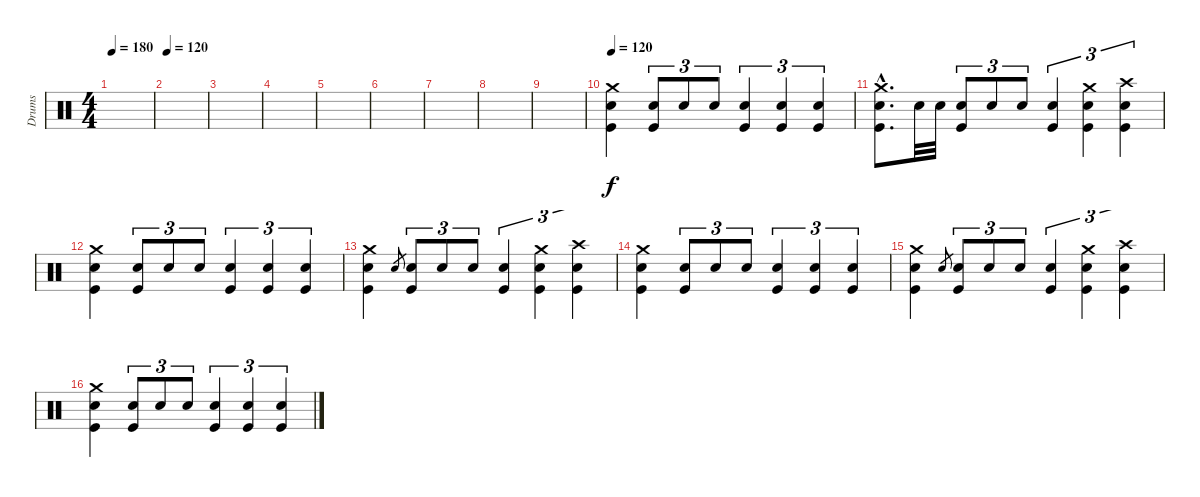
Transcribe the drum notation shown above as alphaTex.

\track ("Drums" "Drums") {instrument percussion}
\staff {score}
\articulation defaults
\ts (4 4)
\tempo 180
\tempo 120
\tempo 180
\clef neutral
\ks c
|
\tempo 120
|
|
|
|
|
|
|
|
\tempo 120
("Crash medium (hit)" "Snare (hit) 2" "Kick (hit)").4 ("Snare (hit) 2" "Kick (hit)").8{tu (3 2)} "Snare (hit) 2".8{tu (3 2)} "Snare (hit) 2".8{tu (3 2)} ("Snare (hit) 2" "Kick (hit)").4{tu (3 2)} ("Snare (hit) 2" "Kick (hit)").4{tu (3 2)} ("Snare (hit) 2" "Kick (hit)").4{tu (3 2)} |
("Crash medium (hit)"{hac} "Snare (hit) 2"{hac} "Kick (hit)"{hac}).8{d} "Snare (hit) 2".32 "Snare (hit) 2".32 ("Snare (hit) 2" "Kick (hit)").8{tu (3 2)} "Snare (hit) 2".8{tu (3 2)} "Snare (hit) 2".8{tu (3 2)} ("Snare (hit) 2" "Kick (hit)").4{tu (3 2)} ("Crash medium (hit)" "Snare (hit) 2" "Kick (hit)").4{tu (3 2)} ("Crash high (hit)" "Snare (hit) 2" "Kick (hit)").4{tu (3 2)} |
("Crash medium (hit)" "Snare (hit) 2" "Kick (hit)").4 ("Snare (hit) 2" "Kick (hit)").8{tu (3 2)} "Snare (hit) 2".8{tu (3 2)} "Snare (hit) 2".8{tu (3 2)} ("Snare (hit) 2" "Kick (hit)").4{tu (3 2)} ("Snare (hit) 2" "Kick (hit)").4{tu (3 2)} ("Snare (hit) 2" "Kick (hit)").4{tu (3 2)} |
("Crash medium (hit)" "Snare (hit) 2" "Kick (hit)").4 "Snare (hit) 2".8{gr} ("Snare (hit) 2" "Kick (hit)").8{tu (3 2)} "Snare (hit) 2".8{tu (3 2)} "Snare (hit) 2".8{tu (3 2)} ("Snare (hit) 2" "Kick (hit)").4{tu (3 2)} ("Crash medium (hit)" "Snare (hit) 2" "Kick (hit)").4{tu (3 2)} ("Crash high (hit)" "Snare (hit) 2" "Kick (hit)").4{tu (3 2)} |
("Crash medium (hit)" "Snare (hit) 2" "Kick (hit)").4 ("Snare (hit) 2" "Kick (hit)").8{tu (3 2)} "Snare (hit) 2".8{tu (3 2)} "Snare (hit) 2".8{tu (3 2)} ("Snare (hit) 2" "Kick (hit)").4{tu (3 2)} ("Snare (hit) 2" "Kick (hit)").4{tu (3 2)} ("Snare (hit) 2" "Kick (hit)").4{tu (3 2)} |
("Crash medium (hit)" "Snare (hit) 2" "Kick (hit)").4 "Snare (hit) 2".8{gr} ("Snare (hit) 2" "Kick (hit)").8{tu (3 2)} "Snare (hit) 2".8{tu (3 2)} "Snare (hit) 2".8{tu (3 2)} ("Snare (hit) 2" "Kick (hit)").4{tu (3 2)} ("Crash medium (hit)" "Snare (hit) 2" "Kick (hit)").4{tu (3 2)} ("Crash high (hit)" "Snare (hit) 2" "Kick (hit)").4{tu (3 2)} |
("Crash medium (hit)" "Snare (hit) 2" "Kick (hit)").4 ("Snare (hit) 2" "Kick (hit)").8{tu (3 2)} "Snare (hit) 2".8{tu (3 2)} "Snare (hit) 2".8{tu (3 2)} ("Snare (hit) 2" "Kick (hit)").4{tu (3 2)} ("Snare (hit) 2" "Kick (hit)").4{tu (3 2)} ("Snare (hit) 2" "Kick (hit)").4{tu (3 2)}
